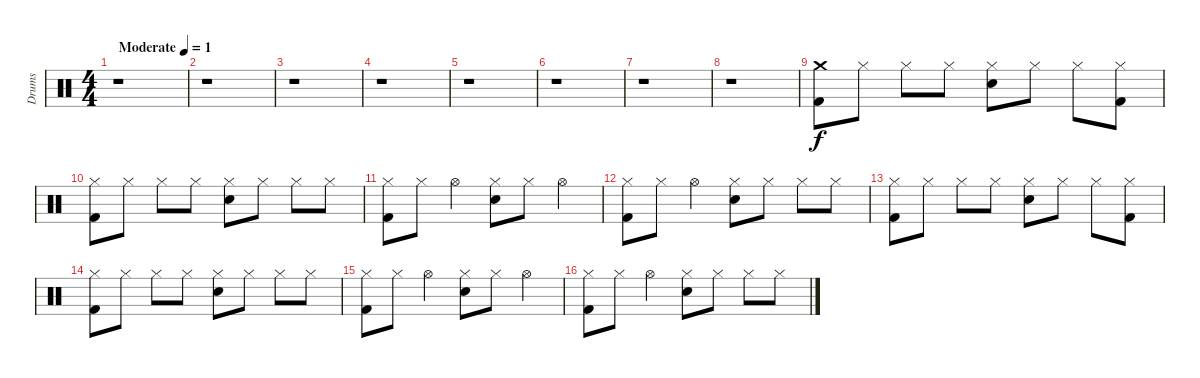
\track ("Drums" "Drums") {instrument percussion}
\staff {score}
\articulation defaults
\ts (4 4)
\tempo (1 "Moderate")
\clef neutral
\ks c
r.1{dy f} |
r.1 |
r.1 |
r.1 |
r.1 |
r.1 |
r.1 |
r.1 |
("Kick (hit) 2" "Crash medium (hit)").8 "Hi-Hat (closed)".8 "Hi-Hat (closed)".8 "Hi-Hat (closed)".8 ("Hi-Hat (closed)" "Snare (hit) 2").8 "Hi-Hat (closed)".8 "Hi-Hat (closed)".8 ("Hi-Hat (closed)" "Kick (hit) 2").8 |
("Hi-Hat (closed)" "Kick (hit) 2").8 "Hi-Hat (closed)".8 "Hi-Hat (closed)".8 "Hi-Hat (closed)".8 ("Hi-Hat (closed)" "Snare (hit) 2").8 "Hi-Hat (closed)".8 "Hi-Hat (closed)".8 "Hi-Hat (closed)".8 |
("Kick (hit) 2" "Hi-Hat (closed)").8 "Hi-Hat (closed)".8 "Hi-Hat (open)".4 ("Snare (hit) 2" "Hi-Hat (closed)").8 "Hi-Hat (closed)".8 "Hi-Hat (open)".4 |
("Kick (hit) 2" "Hi-Hat (closed)").8 "Hi-Hat (closed)".8 "Hi-Hat (open)".4 ("Snare (hit) 2" "Hi-Hat (closed)").8 "Hi-Hat (closed)".8 "Hi-Hat (closed)".8 "Hi-Hat (closed)".8 |
("Kick (hit) 2" "Hi-Hat (closed)").8 "Hi-Hat (closed)".8 "Hi-Hat (closed)".8 "Hi-Hat (closed)".8 ("Hi-Hat (closed)" "Snare (hit) 2").8 "Hi-Hat (closed)".8 "Hi-Hat (closed)".8 ("Hi-Hat (closed)" "Kick (hit) 2").8 |
("Hi-Hat (closed)" "Kick (hit) 2").8 "Hi-Hat (closed)".8 "Hi-Hat (closed)".8 "Hi-Hat (closed)".8 ("Hi-Hat (closed)" "Snare (hit) 2").8 "Hi-Hat (closed)".8 "Hi-Hat (closed)".8 "Hi-Hat (closed)".8 |
("Kick (hit) 2" "Hi-Hat (closed)").8 "Hi-Hat (closed)".8 "Hi-Hat (open)".4 ("Snare (hit) 2" "Hi-Hat (closed)").8 "Hi-Hat (closed)".8 "Hi-Hat (open)".4 |
("Kick (hit) 2" "Hi-Hat (closed)").8 "Hi-Hat (closed)".8 "Hi-Hat (open)".4 ("Snare (hit) 2" "Hi-Hat (closed)").8 "Hi-Hat (closed)".8 "Hi-Hat (closed)".8 "Hi-Hat (closed)".8
